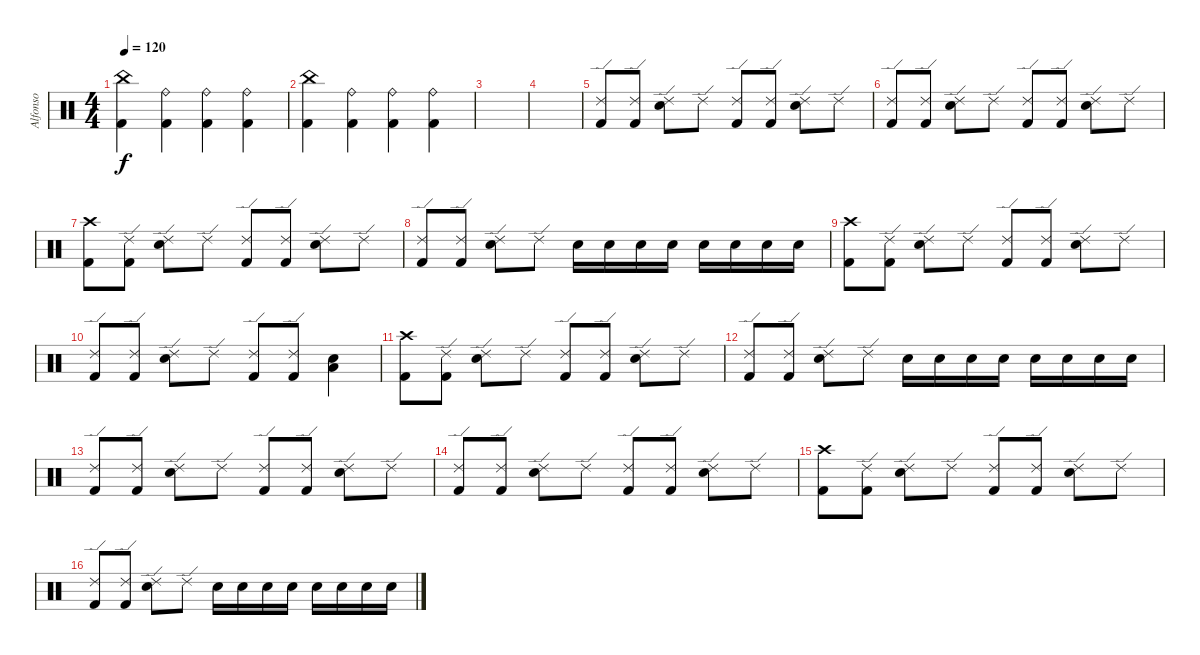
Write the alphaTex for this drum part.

\track ("Alfonso" "Alfonso") {instrument percussion}
\staff {score}
\articulation defaults
\ts (4 4)
\tempo 120
\clef neutral
\ks c
("China (hit)" "Kick (hit) 2").4{dy f} ("Ride (bell)" "Kick (hit) 2").4 ("Ride (bell)" "Kick (hit) 2").4 ("Ride (bell)" "Kick (hit) 2").4 |
("China (hit)" "Kick (hit) 2").4 ("Ride (bell)" "Kick (hit) 2").4 ("Ride (bell)" "Kick (hit) 2").4 ("Ride (bell)" "Kick (hit) 2").4 |
|
|
("Ride (edge) 2" "Kick (hit) 2").8 ("Ride (edge) 2" "Kick (hit) 2").8 ("Ride (edge) 2" "Electric Snare (hit)").8 "Ride (edge) 2".8 ("Ride (edge) 2" "Kick (hit) 2").8 ("Ride (edge) 2" "Kick (hit) 2").8 ("Ride (edge) 2" "Electric Snare (hit)").8 "Ride (edge) 2".8 |
("Ride (edge) 2" "Kick (hit) 2").8 ("Ride (edge) 2" "Kick (hit) 2").8 ("Ride (edge) 2" "Electric Snare (hit)").8 "Ride (edge) 2".8 ("Ride (edge) 2" "Kick (hit) 2").8 ("Ride (edge) 2" "Kick (hit) 2").8 ("Ride (edge) 2" "Electric Snare (hit)").8 "Ride (edge) 2".8 |
("Crash high (hit)" "Kick (hit) 2").8 ("Ride (edge) 2" "Kick (hit) 2").8 ("Ride (edge) 2" "Electric Snare (hit)").8 "Ride (edge) 2".8 ("Ride (edge) 2" "Kick (hit) 2").8 ("Ride (edge) 2" "Kick (hit) 2").8 ("Ride (edge) 2" "Electric Snare (hit)").8 "Ride (edge) 2".8 |
("Ride (edge) 2" "Kick (hit) 2").8 ("Ride (edge) 2" "Kick (hit) 2").8 ("Ride (edge) 2" "Electric Snare (hit)").8 "Ride (edge) 2".8 "Electric Snare (hit)".16 "Electric Snare (hit)".16 "Electric Snare (hit)".16 "Electric Snare (hit)".16 "Electric Snare (hit)".16 "Electric Snare (hit)".16 "Electric Snare (hit)".16 "Electric Snare (hit)".16 |
("Crash high (hit)" "Kick (hit) 2").8 ("Ride (edge) 2" "Kick (hit) 2").8 ("Ride (edge) 2" "Electric Snare (hit)").8 "Ride (edge) 2".8 ("Ride (edge) 2" "Kick (hit) 2").8 ("Ride (edge) 2" "Kick (hit) 2").8 ("Ride (edge) 2" "Electric Snare (hit)").8 "Ride (edge) 2".8 |
("Ride (edge) 2" "Kick (hit) 2").8 ("Ride (edge) 2" "Kick (hit) 2").8 ("Ride (edge) 2" "Electric Snare (hit)").8 "Ride (edge) 2".8 ("Ride (edge) 2" "Kick (hit) 2").8 ("Ride (edge) 2" "Kick (hit) 2").8 ("Low Floor Tom (hit)" "Electric Snare (hit)").4 |
("Crash high (hit)" "Kick (hit) 2").8 ("Ride (edge) 2" "Kick (hit) 2").8 ("Ride (edge) 2" "Electric Snare (hit)").8 "Ride (edge) 2".8 ("Ride (edge) 2" "Kick (hit) 2").8 ("Ride (edge) 2" "Kick (hit) 2").8 ("Ride (edge) 2" "Electric Snare (hit)").8 "Ride (edge) 2".8 |
("Ride (edge) 2" "Kick (hit) 2").8 ("Ride (edge) 2" "Kick (hit) 2").8 ("Ride (edge) 2" "Electric Snare (hit)").8 "Ride (edge) 2".8 "Electric Snare (hit)".16 "Electric Snare (hit)".16 "Electric Snare (hit)".16 "Electric Snare (hit)".16 "Electric Snare (hit)".16 "Electric Snare (hit)".16 "Electric Snare (hit)".16 "Electric Snare (hit)".16 |
("Ride (edge) 2" "Kick (hit) 2").8 ("Ride (edge) 2" "Kick (hit) 2").8 ("Ride (edge) 2" "Electric Snare (hit)").8 "Ride (edge) 2".8 ("Ride (edge) 2" "Kick (hit) 2").8 ("Ride (edge) 2" "Kick (hit) 2").8 ("Ride (edge) 2" "Electric Snare (hit)").8 "Ride (edge) 2".8 |
("Ride (edge) 2" "Kick (hit) 2").8 ("Ride (edge) 2" "Kick (hit) 2").8 ("Ride (edge) 2" "Electric Snare (hit)").8 "Ride (edge) 2".8 ("Ride (edge) 2" "Kick (hit) 2").8 ("Ride (edge) 2" "Kick (hit) 2").8 ("Ride (edge) 2" "Electric Snare (hit)").8 "Ride (edge) 2".8 |
("Crash high (hit)" "Kick (hit) 2").8 ("Ride (edge) 2" "Kick (hit) 2").8 ("Ride (edge) 2" "Electric Snare (hit)").8 "Ride (edge) 2".8 ("Ride (edge) 2" "Kick (hit) 2").8 ("Ride (edge) 2" "Kick (hit) 2").8 ("Ride (edge) 2" "Electric Snare (hit)").8 "Ride (edge) 2".8 |
("Ride (edge) 2" "Kick (hit) 2").8 ("Ride (edge) 2" "Kick (hit) 2").8 ("Ride (edge) 2" "Electric Snare (hit)").8 "Ride (edge) 2".8 "Electric Snare (hit)".16 "Electric Snare (hit)".16 "Electric Snare (hit)".16 "Electric Snare (hit)".16 "Electric Snare (hit)".16 "Electric Snare (hit)".16 "Electric Snare (hit)".16 "Electric Snare (hit)".16
